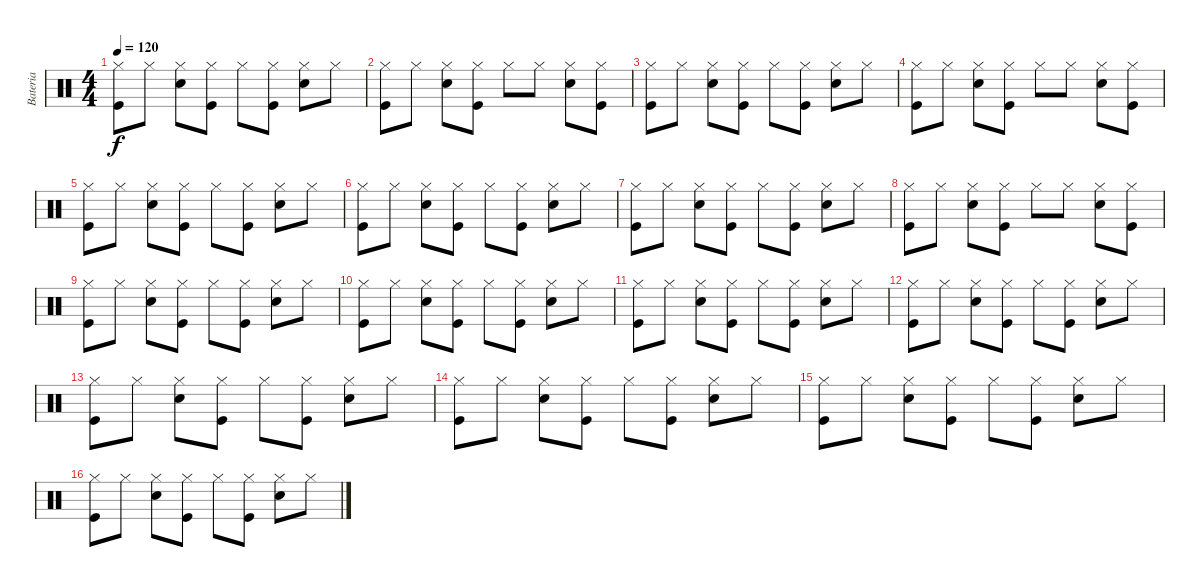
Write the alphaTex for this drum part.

\track ("Bateria" "Bateria") {instrument percussion}
\staff {score}
\articulation defaults
\ts (4 4)
\tempo 120
\clef neutral
\ks c
("Hi-Hat (closed)" "Kick (hit)").8{dy f} "Hi-Hat (closed)".8 ("Hi-Hat (closed)" "Electric Snare (hit)").8 ("Hi-Hat (closed)" "Kick (hit)").8 "Hi-Hat (closed)".8 ("Hi-Hat (closed)" "Kick (hit)").8 ("Hi-Hat (closed)" "Electric Snare (hit)").8 "Hi-Hat (closed)".8 |
("Hi-Hat (closed)" "Kick (hit)").8 "Hi-Hat (closed)".8 ("Hi-Hat (closed)" "Electric Snare (hit)").8 ("Hi-Hat (closed)" "Kick (hit)").8 "Hi-Hat (closed)".8 "Hi-Hat (closed)".8 ("Hi-Hat (closed)" "Electric Snare (hit)").8 ("Hi-Hat (closed)" "Kick (hit)").8 |
("Hi-Hat (closed)" "Kick (hit)").8 "Hi-Hat (closed)".8 ("Hi-Hat (closed)" "Electric Snare (hit)").8 ("Hi-Hat (closed)" "Kick (hit)").8 "Hi-Hat (closed)".8 ("Hi-Hat (closed)" "Kick (hit)").8 ("Hi-Hat (closed)" "Electric Snare (hit)").8 "Hi-Hat (closed)".8 |
("Hi-Hat (closed)" "Kick (hit)").8 "Hi-Hat (closed)".8 ("Hi-Hat (closed)" "Electric Snare (hit)").8 ("Hi-Hat (closed)" "Kick (hit)").8 "Hi-Hat (closed)".8 "Hi-Hat (closed)".8 ("Hi-Hat (closed)" "Electric Snare (hit)").8 ("Hi-Hat (closed)" "Kick (hit)").8 |
("Hi-Hat (closed)" "Kick (hit)").8 "Hi-Hat (closed)".8 ("Hi-Hat (closed)" "Electric Snare (hit)").8 ("Hi-Hat (closed)" "Kick (hit)").8 "Hi-Hat (closed)".8 ("Hi-Hat (closed)" "Kick (hit)").8 ("Hi-Hat (closed)" "Electric Snare (hit)").8 "Hi-Hat (closed)".8 |
("Hi-Hat (closed)" "Kick (hit)").8 "Hi-Hat (closed)".8 ("Hi-Hat (closed)" "Electric Snare (hit)").8 ("Hi-Hat (closed)" "Kick (hit)").8 "Hi-Hat (closed)".8 ("Hi-Hat (closed)" "Kick (hit)").8 ("Hi-Hat (closed)" "Electric Snare (hit)").8 "Hi-Hat (closed)".8 |
("Hi-Hat (closed)" "Kick (hit)").8 "Hi-Hat (closed)".8 ("Hi-Hat (closed)" "Electric Snare (hit)").8 ("Hi-Hat (closed)" "Kick (hit)").8 "Hi-Hat (closed)".8 ("Hi-Hat (closed)" "Kick (hit)").8 ("Hi-Hat (closed)" "Electric Snare (hit)").8 "Hi-Hat (closed)".8 |
("Hi-Hat (closed)" "Kick (hit)").8 "Hi-Hat (closed)".8 ("Hi-Hat (closed)" "Electric Snare (hit)").8 ("Hi-Hat (closed)" "Kick (hit)").8 "Hi-Hat (closed)".8 "Hi-Hat (closed)".8 ("Hi-Hat (closed)" "Electric Snare (hit)").8 ("Hi-Hat (closed)" "Kick (hit)").8 |
("Hi-Hat (closed)" "Kick (hit)").8 "Hi-Hat (closed)".8 ("Hi-Hat (closed)" "Electric Snare (hit)").8 ("Hi-Hat (closed)" "Kick (hit)").8 "Hi-Hat (closed)".8 ("Hi-Hat (closed)" "Kick (hit)").8 ("Hi-Hat (closed)" "Electric Snare (hit)").8 "Hi-Hat (closed)".8 |
("Hi-Hat (closed)" "Kick (hit)").8 "Hi-Hat (closed)".8 ("Hi-Hat (closed)" "Electric Snare (hit)").8 ("Hi-Hat (closed)" "Kick (hit)").8 "Hi-Hat (closed)".8 ("Hi-Hat (closed)" "Kick (hit)").8 ("Hi-Hat (closed)" "Electric Snare (hit)").8 "Hi-Hat (closed)".8 |
("Hi-Hat (closed)" "Kick (hit)").8 "Hi-Hat (closed)".8 ("Hi-Hat (closed)" "Electric Snare (hit)").8 ("Hi-Hat (closed)" "Kick (hit)").8 "Hi-Hat (closed)".8 ("Hi-Hat (closed)" "Kick (hit)").8 ("Hi-Hat (closed)" "Electric Snare (hit)").8 "Hi-Hat (closed)".8 |
("Hi-Hat (closed)" "Kick (hit)").8 "Hi-Hat (closed)".8 ("Hi-Hat (closed)" "Electric Snare (hit)").8 ("Hi-Hat (closed)" "Kick (hit)").8 "Hi-Hat (closed)".8 ("Hi-Hat (closed)" "Kick (hit)").8 ("Hi-Hat (closed)" "Electric Snare (hit)").8 "Hi-Hat (closed)".8 |
("Hi-Hat (closed)" "Kick (hit)").8 "Hi-Hat (closed)".8 ("Hi-Hat (closed)" "Electric Snare (hit)").8 ("Hi-Hat (closed)" "Kick (hit)").8 "Hi-Hat (closed)".8 ("Hi-Hat (closed)" "Kick (hit)").8 ("Hi-Hat (closed)" "Electric Snare (hit)").8 "Hi-Hat (closed)".8 |
("Hi-Hat (closed)" "Kick (hit)").8 "Hi-Hat (closed)".8 ("Hi-Hat (closed)" "Electric Snare (hit)").8 ("Hi-Hat (closed)" "Kick (hit)").8 "Hi-Hat (closed)".8 ("Hi-Hat (closed)" "Kick (hit)").8 ("Hi-Hat (closed)" "Electric Snare (hit)").8 "Hi-Hat (closed)".8 |
("Hi-Hat (closed)" "Kick (hit)").8 "Hi-Hat (closed)".8 ("Hi-Hat (closed)" "Electric Snare (hit)").8 ("Hi-Hat (closed)" "Kick (hit)").8 "Hi-Hat (closed)".8 ("Hi-Hat (closed)" "Kick (hit)").8 ("Hi-Hat (closed)" "Electric Snare (hit)").8 "Hi-Hat (closed)".8 |
("Hi-Hat (closed)" "Kick (hit)").8 "Hi-Hat (closed)".8 ("Hi-Hat (closed)" "Electric Snare (hit)").8 ("Hi-Hat (closed)" "Kick (hit)").8 "Hi-Hat (closed)".8 ("Hi-Hat (closed)" "Kick (hit)").8 ("Hi-Hat (closed)" "Electric Snare (hit)").8 "Hi-Hat (closed)".8
